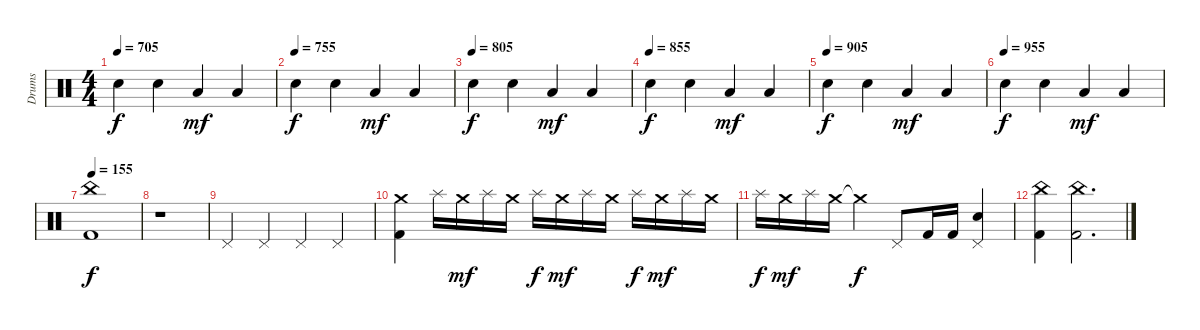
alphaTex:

\track ("Drums" "Drums") {instrument percussion}
\staff {score}
\articulation defaults
\ts (4 4)
\tempo 705
\clef neutral
\ks c "Snare (hit) 2".4{dy f} "Snare (hit) 2".4 "Low Tom (hit)".4{dy mf} "Low Tom (hit)".4
|
\tempo (755)
"Snare (hit) 2".4{dy f} "Snare (hit) 2".4 "Low Tom (hit)".4{dy mf} "Low Tom (hit)".4 |
\tempo (805)
"Snare (hit) 2".4{dy f} "Snare (hit) 2".4 "Low Tom (hit)".4{dy mf} "Low Tom (hit)".4 |
\tempo (855)
"Snare (hit) 2".4{dy f} "Snare (hit) 2".4 "Low Tom (hit)".4{dy mf} "Low Tom (hit)".4 |
\tempo (905)
"Snare (hit) 2".4{dy f} "Snare (hit) 2".4 "Low Tom (hit)".4{dy mf} "Low Tom (hit)".4 |
\tempo (955)
"Snare (hit) 2".4{dy f} "Snare (hit) 2".4 "Low Tom (hit)".4{dy mf} "Low Tom (hit)".4 |
\tempo 155
("China (hit)" "Kick (hit) 2").1{dy f} |
r.1 |
"Pedal Hi-Hat (hit)".4 "Pedal Hi-Hat (hit)".4 "Pedal Hi-Hat (hit)".4 "Pedal Hi-Hat (hit)".4 |
("Crash medium (hit)" "Kick (hit) 2").4 "Splash (hit)".16 "Crash medium (hit)".16{dy mf} "Splash (hit)".16 "Crash medium (hit)".16 "Splash (hit)".16{dy f} "Crash medium (hit)".16{dy mf} "Splash (hit)".16 "Crash medium (hit)".16 "Splash (hit)".16{dy f} "Crash medium (hit)".16{dy mf} "Splash (hit)".16 "Crash medium (hit)".16 |
"Splash (hit)".16{dy f} "Crash medium (hit)".16{dy mf} "Splash (hit)".16 "Crash medium (hit)".16 "Crash medium (hit)"{t}.4{dy f} "Pedal Hi-Hat (hit)".8 "Kick (hit) 2".16 "Kick (hit) 2".16 ("Pedal Hi-Hat (hit)" "Snare (hit) 2").4 |
("China (hit)" "Kick (hit) 2").4 ("China (hit)" "Kick (hit) 2").2{d}
